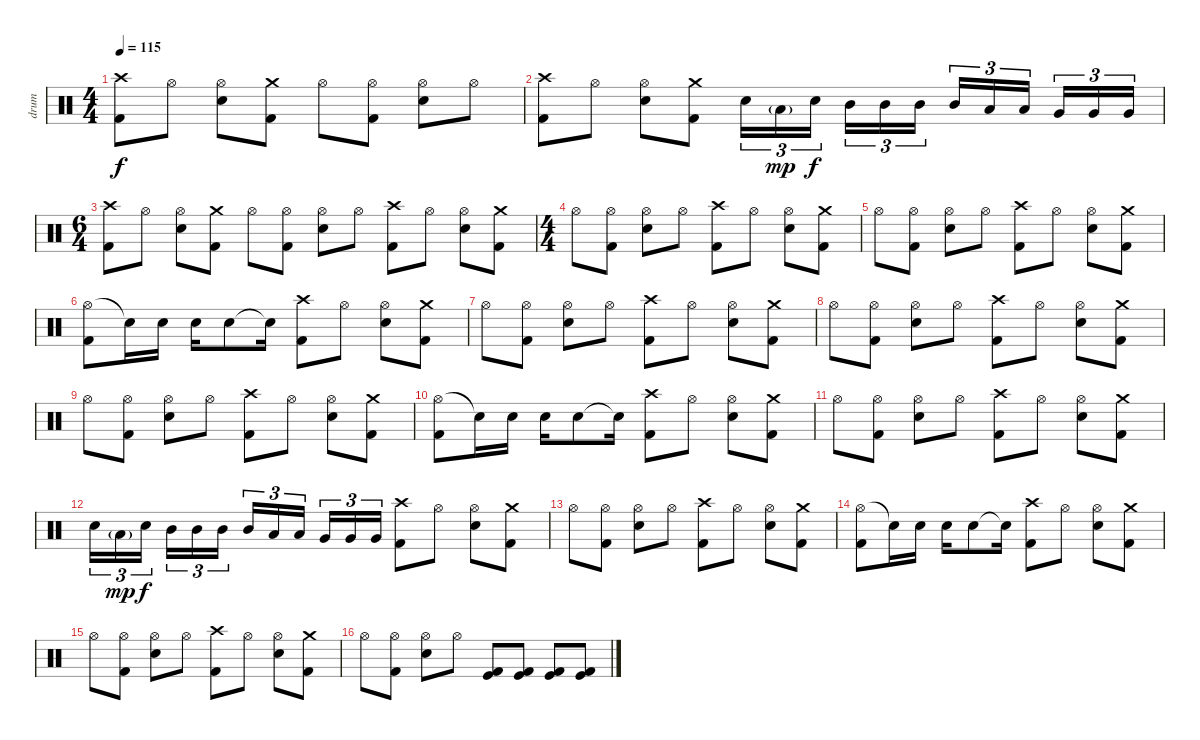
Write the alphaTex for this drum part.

\track ("drum" "drum") {instrument percussion}
\staff {score}
\articulation defaults
\ts (4 4)
\tempo 115
\clef neutral
\ks c
("Crash high (hit)" "Kick (hit) 2").8{dy f} "Hi-Hat (open)".8 ("Hi-Hat (open)" "Electric Snare (hit)").8 ("Crash medium (hit)" "Kick (hit) 2").8 "Hi-Hat (open)".8 ("Hi-Hat (open)" "Kick (hit) 2").8 ("Hi-Hat (open)" "Electric Snare (hit)").8 "Hi-Hat (open)".8 |
("Crash high (hit)" "Kick (hit) 2").8 "Hi-Hat (open)".8 ("Hi-Hat (open)" "Electric Snare (hit)").8 ("Crash medium (hit)" "Kick (hit) 2").8 "Electric Snare (hit)".16{tu (3 2)} "Low Tom (hit)"{g}.16{tu (3 2) dy mp} "Electric Snare (hit)".16{tu (3 2) dy f} "Mid Tom (hit)".16{tu (3 2)} "Mid Tom (hit)".16{tu (3 2)} "Mid Tom (hit)".16{tu (3 2)} "Mid Tom (hit)".16{tu (3 2)} "Low Tom (hit)".16{tu (3 2)} "Low Tom (hit)".16{tu (3 2)} "Very Low Tom (hit)".16{tu (3 2)} "Very Low Tom (hit)".16{tu (3 2)} "Very Low Tom (hit)".16{tu (3 2)} |
\ts (6 4)
("Crash high (hit)" "Kick (hit) 2").8 "Hi-Hat (open)".8 ("Hi-Hat (open)" "Electric Snare (hit)").8 ("Crash medium (hit)" "Kick (hit) 2").8 "Hi-Hat (open)".8 ("Hi-Hat (open)" "Kick (hit) 2").8 ("Hi-Hat (open)" "Electric Snare (hit)").8 "Hi-Hat (open)".8 ("Crash high (hit)" "Kick (hit) 2").8 "Hi-Hat (open)".8 ("Hi-Hat (open)" "Electric Snare (hit)").8 ("Crash medium (hit)" "Kick (hit) 2").8 |
\ts (4 4)
"Hi-Hat (open)".8 ("Hi-Hat (open)" "Kick (hit) 2").8 ("Hi-Hat (open)" "Electric Snare (hit)").8 "Hi-Hat (open)".8 ("Crash high (hit)" "Kick (hit) 2").8 "Hi-Hat (open)".8 ("Hi-Hat (open)" "Electric Snare (hit)").8 ("Crash medium (hit)" "Kick (hit) 2").8 |
"Hi-Hat (open)".8 ("Hi-Hat (open)" "Kick (hit) 2").8 ("Hi-Hat (open)" "Electric Snare (hit)").8 "Hi-Hat (open)".8 ("Crash high (hit)" "Kick (hit) 2").8 "Hi-Hat (open)".8 ("Hi-Hat (open)" "Electric Snare (hit)").8 ("Crash medium (hit)" "Kick (hit) 2").8 |
("Hi-Hat (open)" "Kick (hit) 2").8 "Snare (hit)"{t}.16 "Electric Snare (hit)".16 "Electric Snare (hit)".16 "Electric Snare (hit)".8 "Snare (hit)"{t}.16 ("Crash high (hit)" "Kick (hit) 2").8 "Hi-Hat (open)".8 ("Hi-Hat (open)" "Electric Snare (hit)").8 ("Crash medium (hit)" "Kick (hit) 2").8 |
"Hi-Hat (open)".8 ("Hi-Hat (open)" "Kick (hit) 2").8 ("Hi-Hat (open)" "Electric Snare (hit)").8 "Hi-Hat (open)".8 ("Crash high (hit)" "Kick (hit) 2").8 "Hi-Hat (open)".8 ("Hi-Hat (open)" "Electric Snare (hit)").8 ("Crash medium (hit)" "Kick (hit) 2").8 |
"Hi-Hat (open)".8 ("Hi-Hat (open)" "Kick (hit) 2").8 ("Hi-Hat (open)" "Electric Snare (hit)").8 "Hi-Hat (open)".8 ("Crash high (hit)" "Kick (hit) 2").8 "Hi-Hat (open)".8 ("Hi-Hat (open)" "Electric Snare (hit)").8 ("Crash medium (hit)" "Kick (hit) 2").8 |
"Hi-Hat (open)".8 ("Hi-Hat (open)" "Kick (hit) 2").8 ("Hi-Hat (open)" "Electric Snare (hit)").8 "Hi-Hat (open)".8 ("Crash high (hit)" "Kick (hit) 2").8 "Hi-Hat (open)".8 ("Hi-Hat (open)" "Electric Snare (hit)").8 ("Crash medium (hit)" "Kick (hit) 2").8 |
("Hi-Hat (open)" "Kick (hit) 2").8 "Snare (hit)"{t}.16 "Electric Snare (hit)".16 "Electric Snare (hit)".16 "Electric Snare (hit)".8 "Snare (hit)"{t}.16 ("Crash high (hit)" "Kick (hit) 2").8 "Hi-Hat (open)".8 ("Hi-Hat (open)" "Electric Snare (hit)").8 ("Crash medium (hit)" "Kick (hit) 2").8 |
"Hi-Hat (open)".8 ("Hi-Hat (open)" "Kick (hit) 2").8 ("Hi-Hat (open)" "Electric Snare (hit)").8 "Hi-Hat (open)".8 ("Crash high (hit)" "Kick (hit) 2").8 "Hi-Hat (open)".8 ("Hi-Hat (open)" "Electric Snare (hit)").8 ("Crash medium (hit)" "Kick (hit) 2").8 |
"Electric Snare (hit)".16{tu (3 2)} "Low Tom (hit)"{g}.16{tu (3 2) dy mp} "Electric Snare (hit)".16{tu (3 2) dy f} "Mid Tom (hit)".16{tu (3 2)} "Mid Tom (hit)".16{tu (3 2)} "Mid Tom (hit)".16{tu (3 2)} "Mid Tom (hit)".16{tu (3 2)} "Low Tom (hit)".16{tu (3 2)} "Low Tom (hit)".16{tu (3 2)} "Very Low Tom (hit)".16{tu (3 2)} "Very Low Tom (hit)".16{tu (3 2)} "Very Low Tom (hit)".16{tu (3 2)} ("Crash high (hit)" "Kick (hit) 2").8 "Hi-Hat (open)".8 ("Hi-Hat (open)" "Electric Snare (hit)").8 ("Crash medium (hit)" "Kick (hit) 2").8 |
"Hi-Hat (open)".8 ("Hi-Hat (open)" "Kick (hit) 2").8 ("Hi-Hat (open)" "Electric Snare (hit)").8 "Hi-Hat (open)".8 ("Crash high (hit)" "Kick (hit) 2").8 "Hi-Hat (open)".8 ("Hi-Hat (open)" "Electric Snare (hit)").8 ("Crash medium (hit)" "Kick (hit) 2").8 |
("Hi-Hat (open)" "Kick (hit) 2").8 "Snare (hit)"{t}.16 "Electric Snare (hit)".16 "Electric Snare (hit)".16 "Electric Snare (hit)".8 "Snare (hit)"{t}.16 ("Crash high (hit)" "Kick (hit) 2").8 "Hi-Hat (open)".8 ("Hi-Hat (open)" "Electric Snare (hit)").8 ("Crash medium (hit)" "Kick (hit) 2").8 |
"Hi-Hat (open)".8 ("Hi-Hat (open)" "Kick (hit) 2").8 ("Hi-Hat (open)" "Electric Snare (hit)").8 "Hi-Hat (open)".8 ("Crash high (hit)" "Kick (hit) 2").8 "Hi-Hat (open)".8 ("Hi-Hat (open)" "Electric Snare (hit)").8 ("Crash medium (hit)" "Kick (hit) 2").8 |
"Hi-Hat (open)".8 ("Hi-Hat (open)" "Kick (hit) 2").8 ("Hi-Hat (open)" "Electric Snare (hit)").8 "Hi-Hat (open)".8 ("Kick (hit) 2" "Kick (hit)").8 ("Kick (hit) 2" "Kick (hit)").8 ("Kick (hit) 2" "Kick (hit)").8 ("Kick (hit) 2" "Kick (hit)").8
